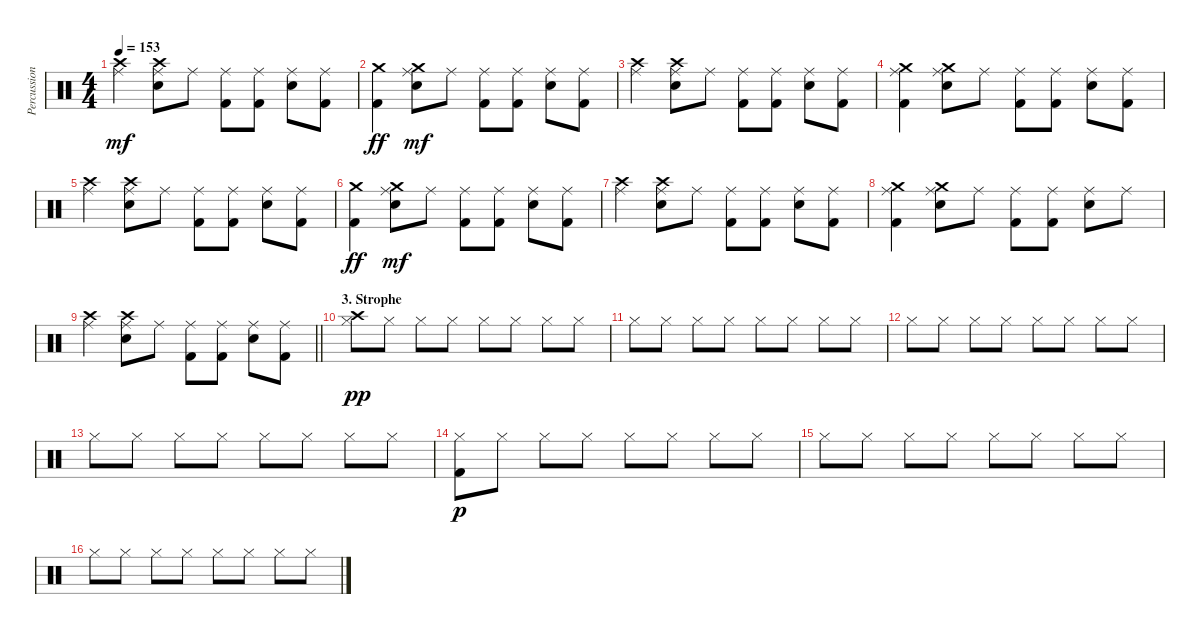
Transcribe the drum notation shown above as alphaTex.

\track ("Percussion" "Percussion") {instrument percussion}
\staff {score}
\articulation defaults
\ts (4 4)
\tempo 153
\clef neutral
\ks c
("Crash high (hit)" "Ride (middle)").4{dy mf} ("Crash high (hit)" "Ride (middle)" "Electric Snare (hit)").8 "Ride (middle)".8 ("Ride (middle)" "Kick (hit) 2").8 ("Ride (middle)" "Kick (hit) 2").8 ("Ride (middle)" "Electric Snare (hit)").8 ("Ride (middle)" "Kick (hit) 2").8 |
("Crash medium (hit)" "Kick (hit) 2").4{dy ff} ("Crash medium (hit)" "Ride (middle)" "Electric Snare (hit)").8{dy mf} "Ride (middle)".8 ("Ride (middle)" "Kick (hit) 2").8 ("Ride (middle)" "Kick (hit) 2").8 ("Ride (middle)" "Electric Snare (hit)").8 ("Ride (middle)" "Kick (hit) 2").8 |
("Crash high (hit)" "Ride (middle)").4 ("Crash high (hit)" "Ride (middle)" "Electric Snare (hit)").8 "Ride (middle)".8 ("Ride (middle)" "Kick (hit) 2").8 ("Ride (middle)" "Kick (hit) 2").8 ("Ride (middle)" "Electric Snare (hit)").8 ("Ride (middle)" "Kick (hit) 2").8 |
("Crash medium (hit)" "Ride (middle)" "Kick (hit) 2").4 ("Crash medium (hit)" "Ride (middle)" "Electric Snare (hit)").8 "Ride (middle)".8 ("Ride (middle)" "Kick (hit) 2").8 ("Ride (middle)" "Kick (hit) 2").8 ("Ride (middle)" "Electric Snare (hit)").8 ("Ride (middle)" "Kick (hit) 2").8 |
("Crash high (hit)" "Ride (middle)").4 ("Crash high (hit)" "Ride (middle)" "Electric Snare (hit)").8 "Ride (middle)".8 ("Ride (middle)" "Kick (hit) 2").8 ("Ride (middle)" "Kick (hit) 2").8 ("Ride (middle)" "Electric Snare (hit)").8 ("Ride (middle)" "Kick (hit) 2").8 |
("Crash medium (hit)" "Kick (hit) 2").4{dy ff} ("Crash medium (hit)" "Ride (middle)" "Electric Snare (hit)").8{dy mf} "Ride (middle)".8 ("Ride (middle)" "Kick (hit) 2").8 ("Ride (middle)" "Kick (hit) 2").8 ("Ride (middle)" "Electric Snare (hit)").8 ("Ride (middle)" "Kick (hit) 2").8 |
("Crash high (hit)" "Ride (middle)").4 ("Crash high (hit)" "Ride (middle)" "Electric Snare (hit)").8 "Ride (middle)".8 ("Ride (middle)" "Kick (hit) 2").8 ("Ride (middle)" "Kick (hit) 2").8 ("Ride (middle)" "Electric Snare (hit)").8 ("Ride (middle)" "Kick (hit) 2").8 |
("Crash medium (hit)" "Ride (middle)" "Kick (hit) 2").4 ("Crash medium (hit)" "Ride (middle)" "Electric Snare (hit)").8 "Ride (middle)".8 ("Ride (middle)" "Kick (hit) 2").8 ("Ride (middle)" "Kick (hit) 2").8 ("Ride (middle)" "Electric Snare (hit)").8 "Ride (middle)".8 |
\barLineRight lightlight
("Crash high (hit)" "Ride (middle)").4 ("Crash high (hit)" "Ride (middle)" "Electric Snare (hit)").8 "Ride (middle)".8 ("Ride (middle)" "Kick (hit) 2").8 ("Ride (middle)" "Kick (hit) 2").8 ("Ride (middle)" "Electric Snare (hit)").8 ("Ride (middle)" "Kick (hit) 2").8 |
\section ("" "3. Strophe")
("Crash high (hit)" "Hi-Hat (closed)").8{dy pp} "Hi-Hat (closed)".8 "Hi-Hat (closed)".8 "Hi-Hat (closed)".8 "Hi-Hat (closed)".8 "Hi-Hat (closed)".8 "Hi-Hat (closed)".8 "Hi-Hat (closed)".8 |
"Hi-Hat (closed)".8 "Hi-Hat (closed)".8 "Hi-Hat (closed)".8 "Hi-Hat (closed)".8 "Hi-Hat (closed)".8 "Hi-Hat (closed)".8 "Hi-Hat (closed)".8 "Hi-Hat (closed)".8 |
"Hi-Hat (closed)".8 "Hi-Hat (closed)".8 "Hi-Hat (closed)".8 "Hi-Hat (closed)".8 "Hi-Hat (closed)".8 "Hi-Hat (closed)".8 "Hi-Hat (closed)".8 "Hi-Hat (closed)".8 |
"Hi-Hat (closed)".8 "Hi-Hat (closed)".8 "Hi-Hat (closed)".8 "Hi-Hat (closed)".8 "Hi-Hat (closed)".8 "Hi-Hat (closed)".8 "Hi-Hat (closed)".8 "Hi-Hat (closed)".8 |
("Hi-Hat (closed)" "Kick (hit) 2").8{dy p} "Hi-Hat (closed)".8 "Hi-Hat (closed)".8 "Hi-Hat (closed)".8 "Hi-Hat (closed)".8 "Hi-Hat (closed)".8 "Hi-Hat (closed)".8 "Hi-Hat (closed)".8 |
"Hi-Hat (closed)".8 "Hi-Hat (closed)".8 "Hi-Hat (closed)".8 "Hi-Hat (closed)".8 "Hi-Hat (closed)".8 "Hi-Hat (closed)".8 "Hi-Hat (closed)".8 "Hi-Hat (closed)".8 |
"Hi-Hat (closed)".8 "Hi-Hat (closed)".8 "Hi-Hat (closed)".8 "Hi-Hat (closed)".8 "Hi-Hat (closed)".8 "Hi-Hat (closed)".8 "Hi-Hat (closed)".8 "Hi-Hat (closed)".8
